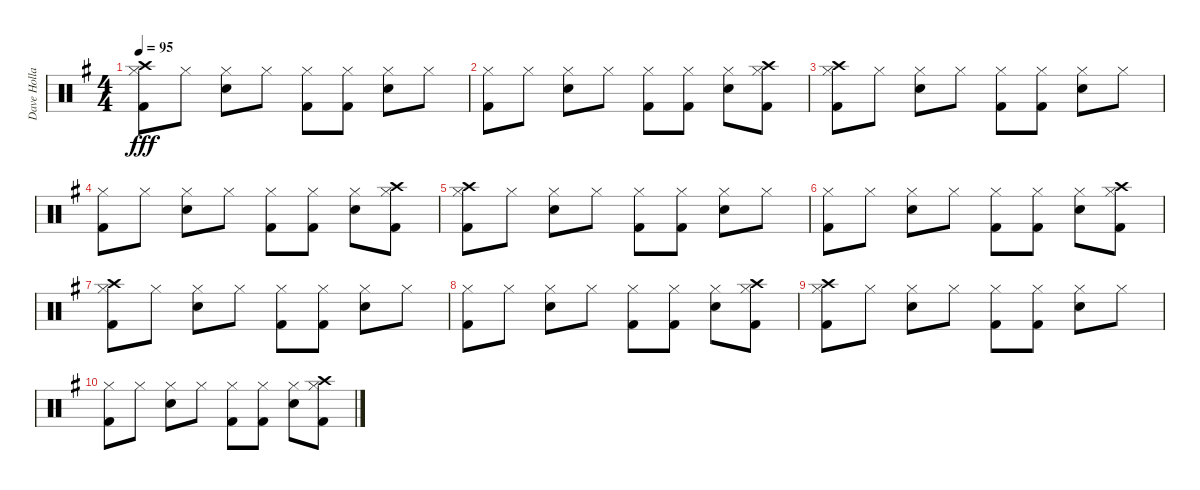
\track ("Dave Holland" "Dave Holla") {instrument percussion}
\staff {score}
\articulation defaults
\ts (4 4)
\tempo 95
\clef neutral
\ks g
("Crash high (hit)" "Hi-Hat (closed)" "Kick (hit) 2").8{dy fff} "Hi-Hat (closed)".8 ("Hi-Hat (closed)" "Snare (hit) 2").8 "Hi-Hat (closed)".8 ("Hi-Hat (closed)" "Kick (hit) 2").8 ("Hi-Hat (closed)" "Kick (hit) 2").8 ("Hi-Hat (closed)" "Snare (hit) 2").8 "Hi-Hat (closed)".8 |
("Hi-Hat (closed)" "Kick (hit) 2").8 "Hi-Hat (closed)".8 ("Hi-Hat (closed)" "Snare (hit) 2").8 "Hi-Hat (closed)".8 ("Hi-Hat (closed)" "Kick (hit) 2").8 ("Hi-Hat (closed)" "Kick (hit) 2").8 ("Hi-Hat (closed)" "Snare (hit) 2").8 ("Crash high (hit)" "Hi-Hat (closed)" "Kick (hit) 2").8 |
("Crash high (hit)" "Hi-Hat (closed)" "Kick (hit) 2").8 "Hi-Hat (closed)".8 ("Hi-Hat (closed)" "Snare (hit) 2").8 "Hi-Hat (closed)".8 ("Hi-Hat (closed)" "Kick (hit) 2").8 ("Hi-Hat (closed)" "Kick (hit) 2").8 ("Hi-Hat (closed)" "Snare (hit) 2").8 "Hi-Hat (closed)".8 |
("Hi-Hat (closed)" "Kick (hit) 2").8 "Hi-Hat (closed)".8 ("Hi-Hat (closed)" "Snare (hit) 2").8 "Hi-Hat (closed)".8 ("Hi-Hat (closed)" "Kick (hit) 2").8 ("Hi-Hat (closed)" "Kick (hit) 2").8 ("Hi-Hat (closed)" "Snare (hit) 2").8 ("Crash high (hit)" "Hi-Hat (closed)" "Kick (hit) 2").8 |
("Crash high (hit)" "Hi-Hat (closed)" "Kick (hit) 2").8 "Hi-Hat (closed)".8 ("Hi-Hat (closed)" "Snare (hit) 2").8 "Hi-Hat (closed)".8 ("Hi-Hat (closed)" "Kick (hit) 2").8 ("Hi-Hat (closed)" "Kick (hit) 2").8 ("Hi-Hat (closed)" "Snare (hit) 2").8 "Hi-Hat (closed)".8 |
("Hi-Hat (closed)" "Kick (hit) 2").8 "Hi-Hat (closed)".8 ("Hi-Hat (closed)" "Snare (hit) 2").8 "Hi-Hat (closed)".8 ("Hi-Hat (closed)" "Kick (hit) 2").8 ("Hi-Hat (closed)" "Kick (hit) 2").8 ("Hi-Hat (closed)" "Snare (hit) 2").8 ("Crash high (hit)" "Hi-Hat (closed)" "Kick (hit) 2").8 |
("Crash high (hit)" "Hi-Hat (closed)" "Kick (hit) 2").8 "Hi-Hat (closed)".8 ("Hi-Hat (closed)" "Snare (hit) 2").8 "Hi-Hat (closed)".8 ("Hi-Hat (closed)" "Kick (hit) 2").8 ("Hi-Hat (closed)" "Kick (hit) 2").8 ("Hi-Hat (closed)" "Snare (hit) 2").8 "Hi-Hat (closed)".8 |
("Hi-Hat (closed)" "Kick (hit) 2").8 "Hi-Hat (closed)".8 ("Hi-Hat (closed)" "Snare (hit) 2").8 "Hi-Hat (closed)".8 ("Hi-Hat (closed)" "Kick (hit) 2").8 ("Hi-Hat (closed)" "Kick (hit) 2").8 ("Hi-Hat (closed)" "Snare (hit) 2").8 ("Crash high (hit)" "Hi-Hat (closed)" "Kick (hit) 2").8 |
("Crash high (hit)" "Hi-Hat (closed)" "Kick (hit) 2").8 "Hi-Hat (closed)".8 ("Hi-Hat (closed)" "Snare (hit) 2").8 "Hi-Hat (closed)".8 ("Hi-Hat (closed)" "Kick (hit) 2").8 ("Hi-Hat (closed)" "Kick (hit) 2").8 ("Hi-Hat (closed)" "Snare (hit) 2").8 "Hi-Hat (closed)".8 |
("Hi-Hat (closed)" "Kick (hit) 2").8 "Hi-Hat (closed)".8 ("Hi-Hat (closed)" "Snare (hit) 2").8 "Hi-Hat (closed)".8 ("Hi-Hat (closed)" "Kick (hit) 2").8 ("Hi-Hat (closed)" "Kick (hit) 2").8 ("Hi-Hat (closed)" "Snare (hit) 2").8 ("Crash high (hit)" "Hi-Hat (closed)" "Kick (hit) 2").8
